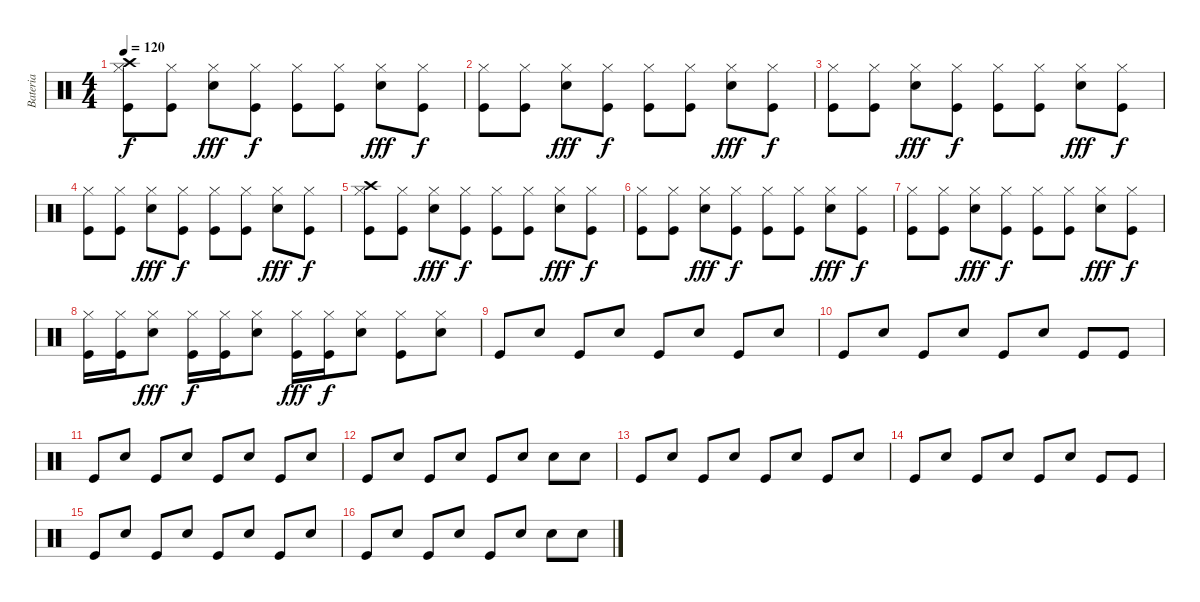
\track ("Bateria" "Bateria") {instrument percussion}
\staff {score}
\articulation defaults
\ts (4 4)
\tempo 120
\clef neutral
\ks c
("Crash high (hit)" "Hi-Hat (closed)" "Kick (hit)").8{dy f} ("Hi-Hat (closed)" "Kick (hit)").8 ("Hi-Hat (closed)" "Snare (hit) 2").8{dy fff} ("Hi-Hat (closed)" "Kick (hit)").8{dy f} ("Hi-Hat (closed)" "Kick (hit)").8 ("Hi-Hat (closed)" "Kick (hit)").8 ("Hi-Hat (closed)" "Snare (hit) 2").8{dy fff} ("Hi-Hat (closed)" "Kick (hit)").8{dy f} |
("Hi-Hat (closed)" "Kick (hit)").8 ("Hi-Hat (closed)" "Kick (hit)").8 ("Hi-Hat (closed)" "Snare (hit) 2").8{dy fff} ("Hi-Hat (closed)" "Kick (hit)").8{dy f} ("Hi-Hat (closed)" "Kick (hit)").8 ("Hi-Hat (closed)" "Kick (hit)").8 ("Hi-Hat (closed)" "Snare (hit) 2").8{dy fff} ("Hi-Hat (closed)" "Kick (hit)").8{dy f} |
("Hi-Hat (closed)" "Kick (hit)").8 ("Hi-Hat (closed)" "Kick (hit)").8 ("Hi-Hat (closed)" "Snare (hit) 2").8{dy fff} ("Hi-Hat (closed)" "Kick (hit)").8{dy f} ("Hi-Hat (closed)" "Kick (hit)").8 ("Hi-Hat (closed)" "Kick (hit)").8 ("Hi-Hat (closed)" "Snare (hit) 2").8{dy fff} ("Hi-Hat (closed)" "Kick (hit)").8{dy f} |
("Hi-Hat (closed)" "Kick (hit)").8 ("Hi-Hat (closed)" "Kick (hit)").8 ("Hi-Hat (closed)" "Snare (hit) 2").8{dy fff} ("Hi-Hat (closed)" "Kick (hit)").8{dy f} ("Hi-Hat (closed)" "Kick (hit)").8 ("Hi-Hat (closed)" "Kick (hit)").8 ("Hi-Hat (closed)" "Snare (hit) 2").8{dy fff} ("Hi-Hat (closed)" "Kick (hit)").8{dy f} |
("Crash high (hit)" "Hi-Hat (closed)" "Kick (hit)").8 ("Hi-Hat (closed)" "Kick (hit)").8 ("Hi-Hat (closed)" "Snare (hit) 2").8{dy fff} ("Hi-Hat (closed)" "Kick (hit)").8{dy f} ("Hi-Hat (closed)" "Kick (hit)").8 ("Hi-Hat (closed)" "Kick (hit)").8 ("Hi-Hat (closed)" "Snare (hit) 2").8{dy fff} ("Hi-Hat (closed)" "Kick (hit)").8{dy f} |
("Hi-Hat (closed)" "Kick (hit)").8 ("Hi-Hat (closed)" "Kick (hit)").8 ("Hi-Hat (closed)" "Snare (hit) 2").8{dy fff} ("Hi-Hat (closed)" "Kick (hit)").8{dy f} ("Hi-Hat (closed)" "Kick (hit)").8 ("Hi-Hat (closed)" "Kick (hit)").8 ("Hi-Hat (closed)" "Snare (hit) 2").8{dy fff} ("Hi-Hat (closed)" "Kick (hit)").8{dy f} |
("Hi-Hat (closed)" "Kick (hit)").8 ("Hi-Hat (closed)" "Kick (hit)").8 ("Hi-Hat (closed)" "Snare (hit) 2").8{dy fff} ("Hi-Hat (closed)" "Kick (hit)").8{dy f} ("Hi-Hat (closed)" "Kick (hit)").8 ("Hi-Hat (closed)" "Kick (hit)").8 ("Hi-Hat (closed)" "Snare (hit) 2").8{dy fff} ("Hi-Hat (closed)" "Kick (hit)").8{dy f} |
("Hi-Hat (closed)" "Kick (hit)").16 ("Hi-Hat (closed)" "Kick (hit)").16 ("Hi-Hat (closed)" "Snare (hit) 2").8{dy fff} ("Hi-Hat (closed)" "Kick (hit)").16{dy f} ("Hi-Hat (closed)" "Kick (hit)").16 ("Hi-Hat (closed)" "Snare (hit) 2").8 ("Hi-Hat (closed)" "Kick (hit)").16{dy fff} ("Hi-Hat (closed)" "Kick (hit)").16{dy f} ("Hi-Hat (closed)" "Snare (hit) 2").8 ("Hi-Hat (closed)" "Kick (hit)").8 ("Hi-Hat (closed)" "Snare (hit) 2").8 |
"Kick (hit)".8 "Electric Snare (hit)".8 "Kick (hit)".8 "Electric Snare (hit)".8 "Kick (hit)".8 "Electric Snare (hit)".8 "Kick (hit)".8 "Electric Snare (hit)".8 |
"Kick (hit)".8 "Electric Snare (hit)".8 "Kick (hit)".8 "Electric Snare (hit)".8 "Kick (hit)".8 "Electric Snare (hit)".8 "Kick (hit)".8 "Kick (hit)".8 |
"Kick (hit)".8 "Electric Snare (hit)".8 "Kick (hit)".8 "Electric Snare (hit)".8 "Kick (hit)".8 "Electric Snare (hit)".8 "Kick (hit)".8 "Electric Snare (hit)".8 |
"Kick (hit)".8 "Electric Snare (hit)".8 "Kick (hit)".8 "Electric Snare (hit)".8 "Kick (hit)".8 "Electric Snare (hit)".8 "Electric Snare (hit)".8 "Electric Snare (hit)".8 |
"Kick (hit)".8 "Electric Snare (hit)".8 "Kick (hit)".8 "Electric Snare (hit)".8 "Kick (hit)".8 "Electric Snare (hit)".8 "Kick (hit)".8 "Electric Snare (hit)".8 |
"Kick (hit)".8 "Electric Snare (hit)".8 "Kick (hit)".8 "Electric Snare (hit)".8 "Kick (hit)".8 "Electric Snare (hit)".8 "Kick (hit)".8 "Kick (hit)".8 |
"Kick (hit)".8 "Electric Snare (hit)".8 "Kick (hit)".8 "Electric Snare (hit)".8 "Kick (hit)".8 "Electric Snare (hit)".8 "Kick (hit)".8 "Electric Snare (hit)".8 |
"Kick (hit)".8 "Electric Snare (hit)".8 "Kick (hit)".8 "Electric Snare (hit)".8 "Kick (hit)".8 "Electric Snare (hit)".8 "Electric Snare (hit)".8 "Electric Snare (hit)".8
